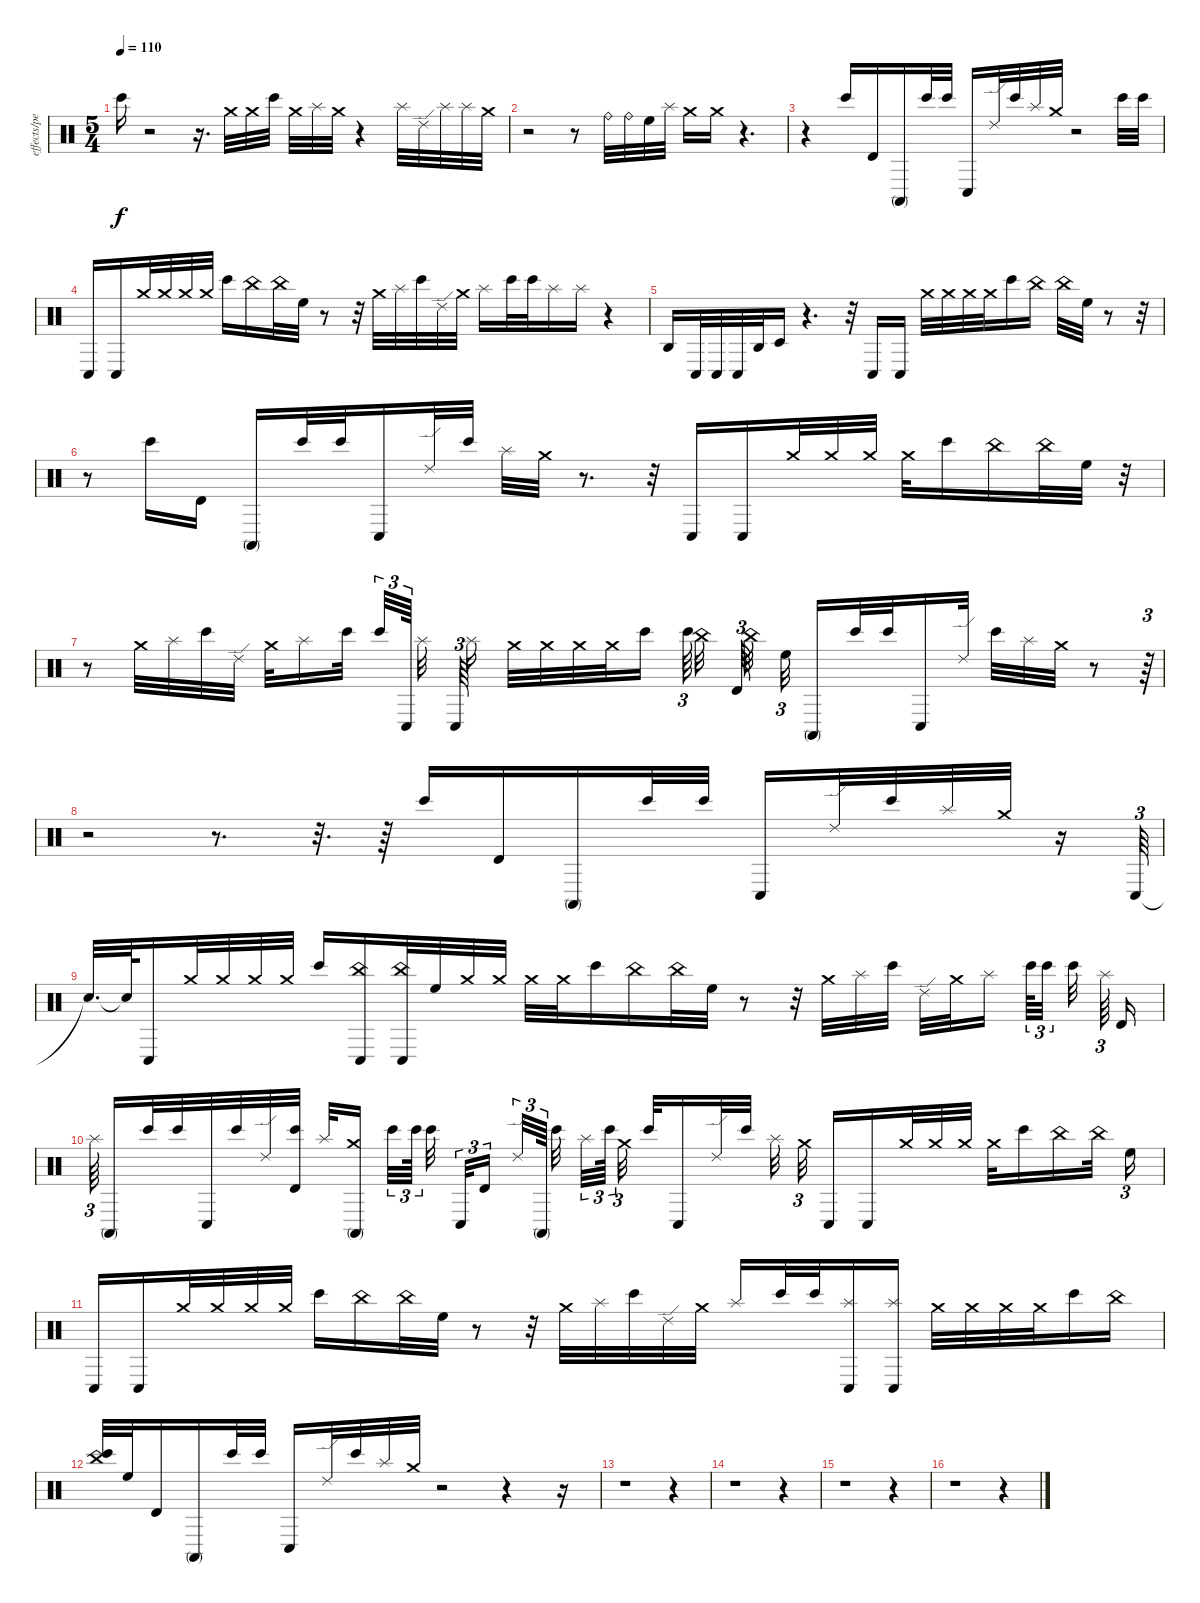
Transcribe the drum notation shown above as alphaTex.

\track ("effects/percussion" "effects/pe") {instrument percussion}
\staff {score}
\articulation defaults
\ts (5 4)
\tempo 110
\clef neutral
\ks c "Bongo High (hit)".16{dy f}
r.2 r.16{d} "Crash medium (hit)".32 "Crash medium (hit)".32 "Bongo High (hit)".32 "Crash medium (hit)".32 "Splash (hit)".32 "Crash medium (hit)".32 r.4 "Splash (hit)".32 "Ride (edge) 2".32 "Splash (hit)".32 "Splash (hit)".32 "Crash medium (hit)".32 |
r.2 r.8 "Ride (bell)".32 "Ride (bell)".32 "High Floor Tom (hit)".32 "Splash (hit)".32 "Crash medium (hit)".16 "Crash medium (hit)".16 r.4{d} |
r.4 "Bongo High (hit)".16 "Timbale high (hit)".16 "Conga high (mute)".16 "Bongo High (hit)".32 "Bongo High (hit)".32 "Conga low (hit)".16 "Ride (edge) 2".32 "Bongo High (hit)".32 "Splash (hit)".32 "Crash medium (hit)".32 r.2 "Bongo High (hit)".32 "Bongo High (hit)".32 |
"Conga low (hit)".16 "Conga low (hit)".16 "Crash medium (hit)".32 "Crash medium (hit)".32 "Crash medium (hit)".32 "Crash medium (hit)".32 "Bongo High (hit)".16 "China (hit)".16 "China (hit)".32 "High Floor Tom (hit)".32 r.8 r.32 "Crash medium (hit)".32 "Splash (hit)".32 "Bongo High (hit)".32 "Ride (edge) 2".32 "Crash medium (hit)".32 "Splash (hit)".16 "Bongo High (hit)".32 "Bongo High (hit)".32 "Splash (hit)".16 "Splash (hit)".16 r.4 |
"Agogo high (hit)".16 "Conga low (hit)".32 "Conga low (hit)".32 "Conga low (hit)".32 "Agogo high (hit)".32 "Timbale low (hit)".16 r.4{d} r.32 "Conga low (hit)".16 "Conga low (hit)".16 "Crash medium (hit)".32 "Crash medium (hit)".32 "Crash medium (hit)".32 "Crash medium (hit)".32 "Bongo High (hit)".16 "China (hit)".16 "China (hit)".32 "High Floor Tom (hit)".32 r.8 r.32 |
r.8 "Bongo High (hit)".16 "Timbale high (hit)".16 "Conga high (mute)".16 "Bongo High (hit)".32 "Bongo High (hit)".32 "Conga low (hit)".16 "Ride (edge) 2".32 "Bongo High (hit)".32 "Splash (hit)".32 "Crash medium (hit)".32 r.8{d} r.32 "Conga low (hit)".16 "Conga low (hit)".16 "Crash medium (hit)".32 "Crash medium (hit)".32 "Crash medium (hit)".32 "Crash medium (hit)".32 "Bongo High (hit)".16 "China (hit)".16 "China (hit)".32 "High Floor Tom (hit)".32 r.32 |
r.8 "Crash medium (hit)".32 "Splash (hit)".32 "Bongo High (hit)".32 "Ride (edge) 2".32 "Crash medium (hit)".32 "Splash (hit)".16 "Bongo High (hit)".32{beam splitsecondary} "Bongo High (hit)".32{tu (3 2)} "Conga low (hit)".64{tu (3 2) beam splitsecondary} "Splash (hit)".32{beam splitsecondary} "Conga low (hit)".64{tu (3 2)} "Splash (hit)".16 "Crash medium (hit)".32 "Crash medium (hit)".32 "Crash medium (hit)".32 "Crash medium (hit)".32 "Bongo High (hit)".16{beam splitsecondary} "Bongo High (hit)".64{tu (3 2) beam splitsecondary} "China (hit)".32 "Timbale high (hit)".64{tu (3 2)} "China (hit)".32{beam splitsecondary} "High Floor Tom (hit)".32{tu (3 2) beam splitsecondary} "Conga high (mute)".16 "Bongo High (hit)".32 "Bongo High (hit)".32 "Conga low (hit)".16 "Ride (edge) 2".32 "Bongo High (hit)".32 "Splash (hit)".32 "Crash medium (hit)".32 r.8 r.64{tu (3 2)} |
r.2 r.8{d} r.32{d} r.64 "Bongo High (hit)".16 "Timbale high (hit)".16 "Conga high (mute)".16 "Bongo High (hit)".32 "Bongo High (hit)".32 "Conga low (hit)".16 "Ride (edge) 2".32 "Bongo High (hit)".32 "Splash (hit)".32 "Crash medium (hit)".32 r.16 "Conga low (hit)".64{tu (3 2)} |
"Snare (hit)"{t}.32{d} "Snare (hit)"{t}.64 "Conga low (hit)".16 "Crash medium (hit)".32 "Crash medium (hit)".32 "Crash medium (hit)".32 "Crash medium (hit)".32 "Bongo High (hit)".16 ("China (hit)" "Conga low (hit)").16 ("China (hit)" "Conga low (hit)").32 "High Floor Tom (hit)".32 "Crash medium (hit)".32 "Crash medium (hit)".32 "Crash medium (hit)".32 "Crash medium (hit)".32 "Bongo High (hit)".16 "China (hit)".16 "China (hit)".32 "High Floor Tom (hit)".32 r.8 r.32 "Crash medium (hit)".32 "Splash (hit)".32 "Bongo High (hit)".32 "Ride (edge) 2".32 "Crash medium (hit)".32 "Splash (hit)".16{beam splitsecondary} "Bongo High (hit)".64{tu (3 2)} "Bongo High (hit)".32{tu (3 2) beam splitsecondary} "Bongo High (hit)".32{beam splitsecondary} "Splash (hit)".64{tu (3 2)} "Timbale high (hit)".16 |
"Splash (hit)".64{tu (3 2) beam splitsecondary} "Conga high (mute)".16 "Bongo High (hit)".32 "Bongo High (hit)".32 "Conga low (hit)".32 "Bongo High (hit)".32 "Ride (edge) 2".32 ("Bongo High (hit)" "Timbale high (hit)").32 "Splash (hit)".32 ("Crash medium (hit)" "Conga high (mute)").16{beam splitsecondary} "Bongo High (hit)".32{tu (3 2)} "Bongo High (hit)".64{tu (3 2) beam splitsecondary} "Bongo High (hit)".32{beam splitsecondary} "Conga low (hit)".32{tu (3 2)} "Timbale high (hit)".16{tu (3 2) beam splitsecondary} "Ride (edge) 2".32{tu (3 2)} "Conga high (mute)".64{tu (3 2) beam splitsecondary} "Bongo High (hit)".32{beam splitsecondary} "Splash (hit)".32{tu (3 2)} "Bongo High (hit)".64{tu (3 2) beam splitsecondary} "Crash medium (hit)".32{tu (3 2) beam splitsecondary} "Bongo High (hit)".32 "Conga low (hit)".16 "Ride (edge) 2".32 "Bongo High (hit)".32 "Splash (hit)".32{beam splitsecondary} "Crash medium (hit)".32{tu (3 2) beam splitsecondary} "Conga low (hit)".16 "Conga low (hit)".16 "Crash medium (hit)".32 "Crash medium (hit)".32 "Crash medium (hit)".32 "Crash medium (hit)".32 "Bongo High (hit)".16 "China (hit)".16 "China (hit)".32{beam splitsecondary} "High Floor Tom (hit)".16{tu (3 2)} |
"Conga low (hit)".16 "Conga low (hit)".16 "Crash medium (hit)".32 "Crash medium (hit)".32 "Crash medium (hit)".32 "Crash medium (hit)".32 "Bongo High (hit)".16 "China (hit)".16 "China (hit)".32 "High Floor Tom (hit)".32 r.8 r.32 "Crash medium (hit)".32 "Splash (hit)".32 "Bongo High (hit)".32 "Ride (edge) 2".32 "Crash medium (hit)".32 "Splash (hit)".16 "Bongo High (hit)".32 "Bongo High (hit)".32 ("Splash (hit)" "Conga low (hit)").16 ("Splash (hit)" "Conga low (hit)").16 "Crash medium (hit)".32 "Crash medium (hit)".32 "Crash medium (hit)".32 "Crash medium (hit)".32 "Bongo High (hit)".16 "China (hit)".16 |
("China (hit)" "Bongo High (hit)").32 "High Floor Tom (hit)".32 "Timbale high (hit)".16 "Conga high (mute)".16 "Bongo High (hit)".32 "Bongo High (hit)".32 "Conga low (hit)".16 "Ride (edge) 2".32 "Bongo High (hit)".32 "Splash (hit)".32 "Crash medium (hit)".32 r.2 r.4 r.16 |
r.1 r.4 |
r.1 r.4 |
r.1 r.4 |
r.1 r.4
